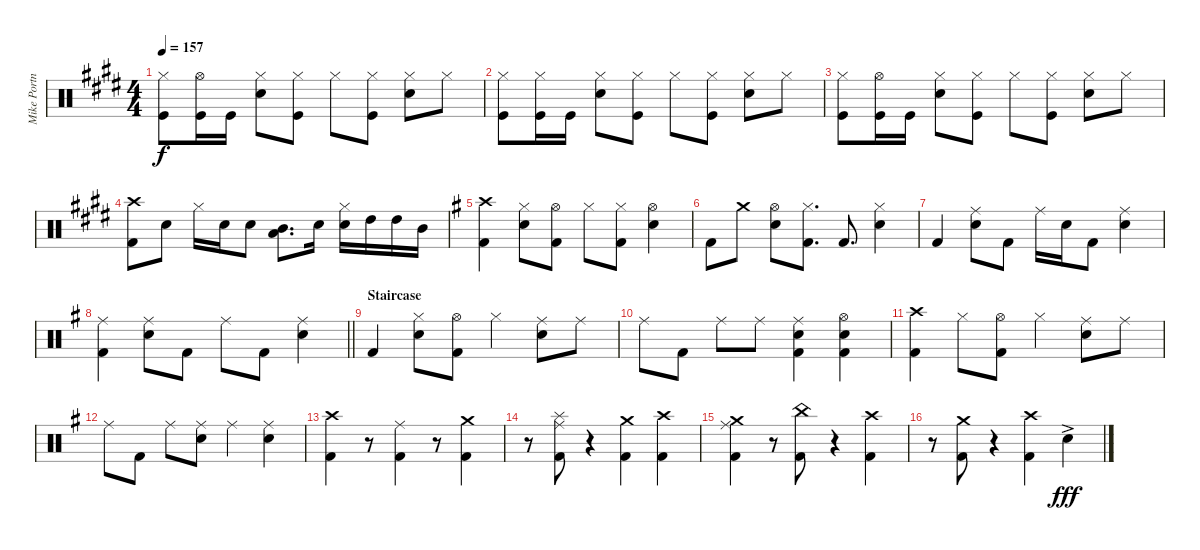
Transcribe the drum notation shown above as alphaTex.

\track ("Mike Portnoy" "Mike Portn") {instrument percussion}
\staff {score}
\articulation defaults
\ts (4 4)
\tempo 157
\clef neutral
\ks e
("Kick (hit)" "Hi-Hat (closed)").8{dy f} ("Kick (hit)" "Hi-Hat (open)").16 "Kick (hit)".16 ("Snare (hit) 2" "Hi-Hat (closed)").8 ("Kick (hit)" "Hi-Hat (closed)").8 "Hi-Hat (closed)".8 ("Kick (hit)" "Hi-Hat (closed)").8 ("Snare (hit) 2" "Hi-Hat (closed)").8 "Hi-Hat (closed)".8 |
\ks c#minor
("Kick (hit)" "Hi-Hat (closed)").8 ("Kick (hit)" "Hi-Hat (closed)").16 "Kick (hit)".16 ("Snare (hit) 2" "Hi-Hat (closed)").8 ("Kick (hit)" "Hi-Hat (closed)").8 "Hi-Hat (closed)".8 ("Kick (hit)" "Hi-Hat (closed)").8 ("Snare (hit) 2" "Hi-Hat (closed)").8 "Hi-Hat (closed)".8 |
\ks e
("Kick (hit)" "Hi-Hat (closed)").8 ("Kick (hit)" "Hi-Hat (open)").16 "Kick (hit)".16 ("Snare (hit) 2" "Hi-Hat (closed)").8 ("Kick (hit)" "Hi-Hat (closed)").8 "Hi-Hat (closed)".8 ("Kick (hit)" "Hi-Hat (closed)").8 ("Snare (hit) 2" "Hi-Hat (closed)").8 "Hi-Hat (closed)".8 |
\ks c#minor
("Kick (hit) 2" "Crash high (hit)").8 "Snare (hit) 2".8 "Hi-Hat (closed)".16 "Snare (hit) 2".16 "Snare (hit) 2".8 ("Mid Tom (hit)" "Low Tom (hit)").8{d} "Snare (hit) 2".16 ("Snare (hit) 2" "Hi-Hat (closed)").16 "High Tom (hit)".16 "High Tom (hit)".16 "Mid Tom (hit)".16 |
\ks g
("Kick (hit) 2" "Crash high (hit)").4 ("Snare (hit) 2" "Hi-Hat (closed)").8 ("Kick (hit) 2" "Hi-Hat (open)").8 "Hi-Hat (closed)".8 ("Kick (hit) 2" "Hi-Hat (closed)").8 ("Snare (hit) 2" "Hi-Hat (open)").4 |
"Kick (hit) 2".8 "Crash medium (hit)".8 ("Snare (hit) 2" "Hi-Hat (open)").8 ("Kick (hit) 2" "Hi-Hat (closed)").8{d} "Kick (hit) 2".8{d} ("Snare (hit) 2" "Hi-Hat (closed)").4 |
"Kick (hit) 2".4 ("Snare (hit) 2" "Ride (middle)").8 "Kick (hit) 2".8 "Ride (middle)".16 "Snare (hit) 2".16 "Kick (hit) 2".8 ("Snare (hit) 2" "Ride (middle)").4 |
\barLineRight lightlight
("Kick (hit) 2" "Ride (middle)").4 ("Snare (hit) 2" "Ride (middle)").8 "Kick (hit) 2".8 "Ride (middle)".8 "Kick (hit) 2".8 ("Snare (hit) 2" "Ride (middle)").4 |
\section ("" "Staircase")
"Kick (hit) 2".4 ("Snare (hit) 2" "Hi-Hat (closed)").8 ("Kick (hit) 2" "Hi-Hat (open)").8 "Hi-Hat (closed)".4 ("Snare (hit) 2" "Ride (middle)").8 "Ride (middle)".8 |
"Ride (middle)".8 "Kick (hit) 2".8 "Ride (middle)".8 "Ride (middle)".8 ("Kick (hit) 2" "Snare (hit) 2" "Ride (middle)").4 ("Kick (hit) 2" "Snare (hit) 2" "Hi-Hat (open)").4 |
("Kick (hit) 2" "Crash high (hit)").4 "Hi-Hat (closed)".8 ("Kick (hit) 2" "Hi-Hat (open)").8 "Hi-Hat (closed)".4 ("Snare (hit) 2" "Ride (middle)").8 "Ride (middle)".8 |
"Ride (middle)".8 "Kick (hit) 2".8 "Ride (middle)".8 ("Snare (hit) 2" "Ride (middle)").8 "Ride (middle)".4 ("Snare (hit) 2" "Ride (middle)").4 |
("Kick (hit) 2" "Crash high (hit)").4 r.8 ("Kick (hit) 2" "Ride (middle)").4 r.8 ("Kick (hit) 2" "Crash medium (hit)").4 |
r.8 ("Kick (hit) 2" "Splash (hit)" "Ride (middle)").8 r.4 ("Kick (hit) 2" "Crash medium (hit)").4 ("Kick (hit) 2" "Crash high (hit)").4 |
("Kick (hit) 2" "Crash medium (hit)" "Ride (middle)").4 r.8 ("Kick (hit) 2" "China (hit)").8 r.4 ("Kick (hit) 2" "Crash high (hit)").4 |
r.8 ("Kick (hit) 2" "Crash medium (hit)").8 r.4 ("Kick (hit) 2" "Crash high (hit)").4 "Snare (hit) 2"{ac}.4{dy fff}
